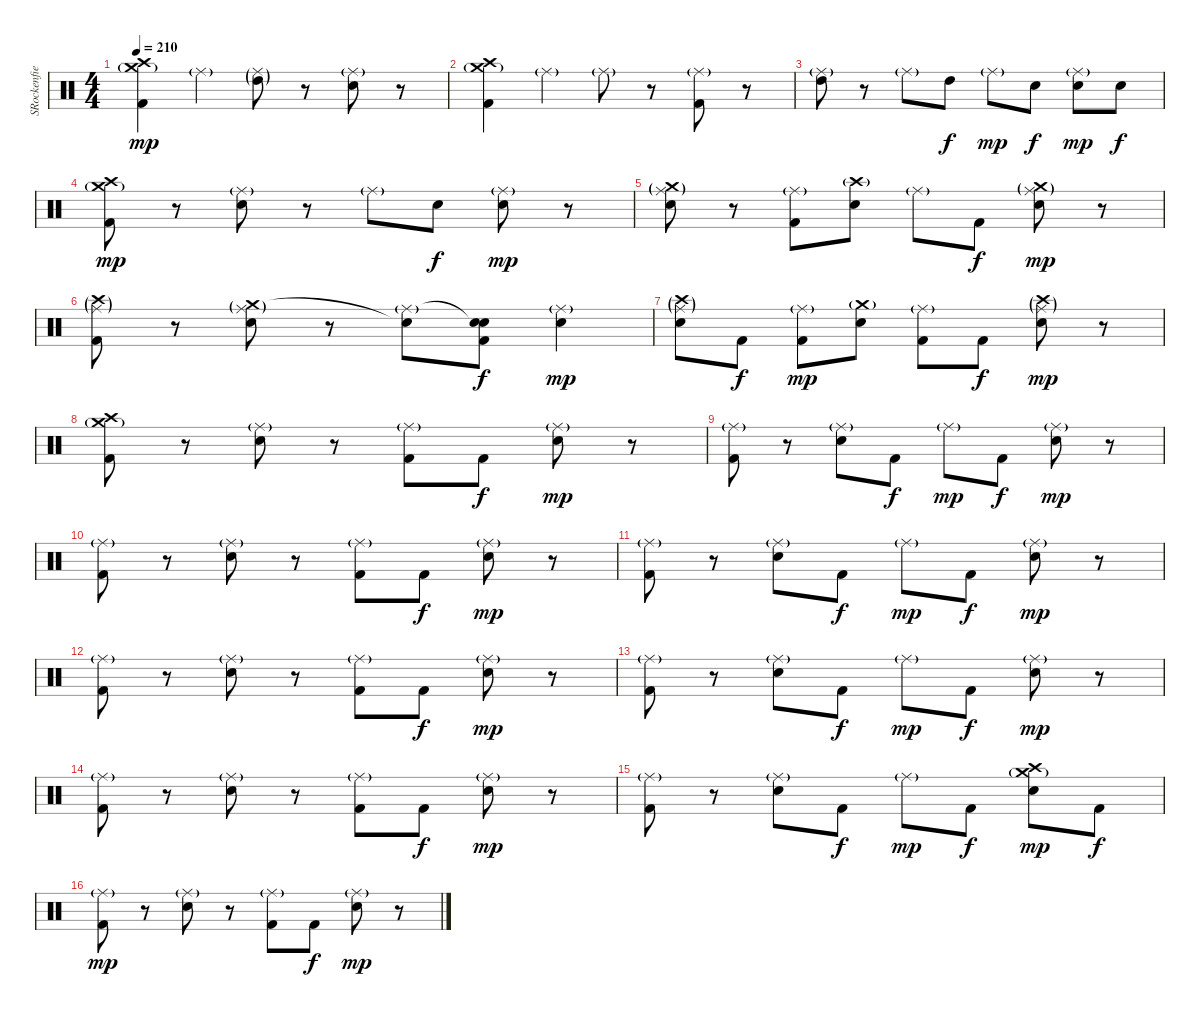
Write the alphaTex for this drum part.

\track ("SRockenfield" "SRockenfie") {instrument percussion}
\staff {score}
\articulation defaults
\ts (4 4)
\tempo 210
\clef neutral
\ks c
("Crash medium (hit)"{g} "Crash high (hit)" "Kick (hit) 2").4{dy mp} "Ride (middle)"{g}.4 ("Ride (middle)"{g} "High Tom (hit)"{g}).8 r.8 ("Ride (middle)"{g} "Electric Snare (hit)").8 r.8 |
("Crash medium (hit)"{g} "Crash high (hit)" "Kick (hit) 2").4 "Ride (middle)"{g}.4 "Ride (middle)"{g}.8 r.8 ("Ride (middle)"{g} "Kick (hit) 2").8 r.8 |
("Ride (middle)"{g} "High Tom (hit)").8 r.8 "Ride (middle)"{g}.8 "High Tom (hit)".8{dy f} "Ride (middle)"{g}.8{dy mp} "Electric Snare (hit)".8{dy f} ("Ride (middle)"{g} "Electric Snare (hit)").8{dy mp} "Electric Snare (hit)".8{dy f} |
("Crash high (hit)" "Crash medium (hit)"{g} "Kick (hit) 2").8{dy mp} r.8 ("Ride (middle)"{g} "Electric Snare (hit)").8 r.8 "Ride (middle)"{g}.8 "Electric Snare (hit)".8{dy f} ("Ride (middle)"{g} "Electric Snare (hit)").8{dy mp} r.8 |
("Ride (middle)"{g} "Crash medium (hit)"{g} "Electric Snare (hit)").8 r.8 ("Ride (middle)"{g} "Kick (hit) 2").8 ("Crash high (hit)"{g} "Electric Snare (hit)").8 "Ride (middle)"{g}.8 "Kick (hit) 2".8{dy f} ("Ride (middle)"{g} "Crash medium (hit)"{g} "Electric Snare (hit)").8{dy mp} r.8 |
("Ride (middle)"{g} "Crash high (hit)"{g} "Kick (hit) 2").8 r.8 ("Ride (middle)"{g} "Crash medium (hit)"{g} "Electric Snare (hit)").8 r.8 ("Ride (middle)"{g} "Snare (hit)"{t}).8 ("Snare (hit)"{t} "Electric Snare (hit)" "Kick (hit) 2").8{dy f} ("Ride (middle)"{g} "Electric Snare (hit)").4{dy mp} |
("Ride (middle)"{g} "Crash high (hit)"{g} "Electric Snare (hit)").8 "Kick (hit) 2".8{dy f} ("Ride (middle)"{g} "Kick (hit) 2").8{dy mp} ("Crash medium (hit)"{g} "Electric Snare (hit)").8 ("Ride (middle)"{g} "Kick (hit) 2").8 "Kick (hit) 2".8{dy f} ("Ride (middle)"{g} "Crash high (hit)"{g} "Electric Snare (hit)").8{dy mp} r.8 |
("Crash high (hit)" "Crash medium (hit)"{g} "Kick (hit) 2").8 r.8 ("Ride (middle)"{g} "Electric Snare (hit)").8 r.8 ("Ride (middle)"{g} "Kick (hit) 2").8 "Kick (hit) 2".8{dy f} ("Ride (middle)"{g} "Electric Snare (hit)").8{dy mp} r.8 |
("Ride (middle)"{g} "Kick (hit) 2").8 r.8 ("Ride (middle)"{g} "Electric Snare (hit)").8 "Kick (hit) 2".8{dy f} "Ride (middle)"{g}.8{dy mp} "Kick (hit) 2".8{dy f} ("Ride (middle)"{g} "Electric Snare (hit)").8{dy mp} r.8 |
("Ride (middle)"{g} "Kick (hit) 2").8 r.8 ("Ride (middle)"{g} "Electric Snare (hit)").8 r.8 ("Ride (middle)"{g} "Kick (hit) 2").8 "Kick (hit) 2".8{dy f} ("Ride (middle)"{g} "Electric Snare (hit)").8{dy mp} r.8 |
("Ride (middle)"{g} "Kick (hit) 2").8 r.8 ("Ride (middle)"{g} "Electric Snare (hit)").8 "Kick (hit) 2".8{dy f} "Ride (middle)"{g}.8{dy mp} "Kick (hit) 2".8{dy f} ("Ride (middle)"{g} "Electric Snare (hit)").8{dy mp} r.8 |
("Ride (middle)"{g} "Kick (hit) 2").8 r.8 ("Ride (middle)"{g} "Electric Snare (hit)").8 r.8 ("Ride (middle)"{g} "Kick (hit) 2").8 "Kick (hit) 2".8{dy f} ("Ride (middle)"{g} "Electric Snare (hit)").8{dy mp} r.8 |
("Ride (middle)"{g} "Kick (hit) 2").8 r.8 ("Ride (middle)"{g} "Electric Snare (hit)").8 "Kick (hit) 2".8{dy f} "Ride (middle)"{g}.8{dy mp} "Kick (hit) 2".8{dy f} ("Ride (middle)"{g} "Electric Snare (hit)").8{dy mp} r.8 |
("Ride (middle)"{g} "Kick (hit) 2").8 r.8 ("Ride (middle)"{g} "Electric Snare (hit)").8 r.8 ("Ride (middle)"{g} "Kick (hit) 2").8 "Kick (hit) 2".8{dy f} ("Ride (middle)"{g} "Electric Snare (hit)").8{dy mp} r.8 |
("Ride (middle)"{g} "Kick (hit) 2").8 r.8 ("Ride (middle)"{g} "Electric Snare (hit)").8 "Kick (hit) 2".8{dy f} "Ride (middle)"{g}.8{dy mp} "Kick (hit) 2".8{dy f} ("Crash medium (hit)"{g} "Crash high (hit)" "Electric Snare (hit)").8{dy mp} "Kick (hit) 2".8{dy f} |
("Ride (middle)"{g} "Kick (hit) 2").8{dy mp} r.8 ("Ride (middle)"{g} "Electric Snare (hit)").8 r.8 ("Ride (middle)"{g} "Kick (hit) 2").8 "Kick (hit) 2".8{dy f} ("Ride (middle)"{g} "Electric Snare (hit)").8{dy mp} r.8
